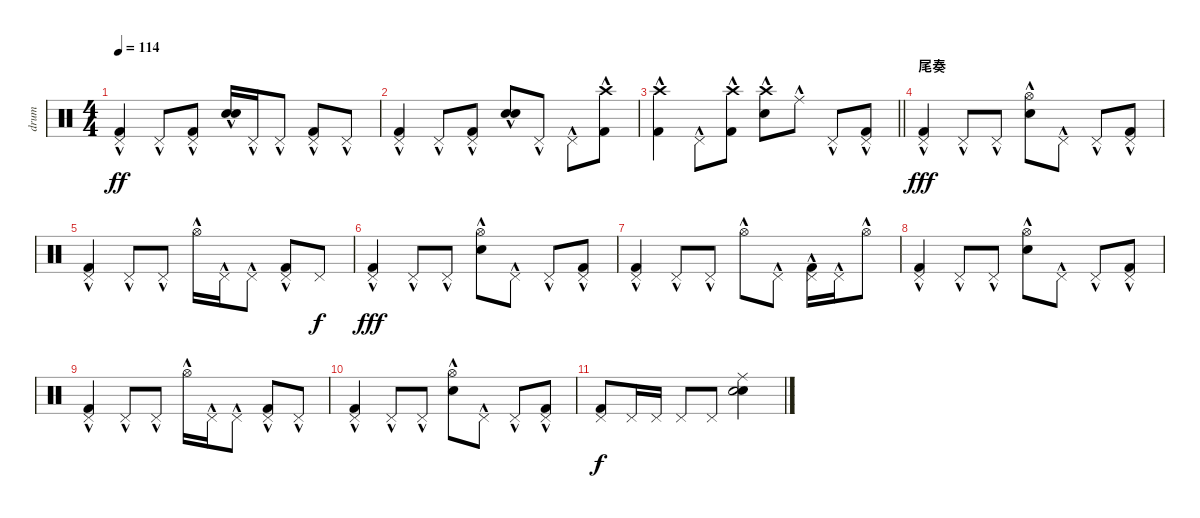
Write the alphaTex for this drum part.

\track ("drum" "drum") {instrument percussion}
\staff {score}
\articulation defaults
\ts (4 4)
\tempo 114
\clef neutral
\ks c
("Pedal Hi-Hat (hit)"{hac} "Kick (hit) 2"{hac}).4{dy ff} "Pedal Hi-Hat (hit)"{hac}.8 ("Pedal Hi-Hat (hit)"{hac} "Kick (hit) 2"{hac}).8 ("Snare (hit) 2"{hac} "Hand Clap (hit)"{hac}).16 "Pedal Hi-Hat (hit)"{hac}.16 "Pedal Hi-Hat (hit)"{hac}.8 ("Pedal Hi-Hat (hit)"{hac} "Kick (hit) 2").8 "Pedal Hi-Hat (hit)"{hac}.8 |
("Pedal Hi-Hat (hit)"{hac} "Kick (hit) 2"{hac}).4 "Pedal Hi-Hat (hit)"{hac}.8 ("Pedal Hi-Hat (hit)"{hac} "Kick (hit) 2"{hac}).8 ("Snare (hit) 2"{hac} "Hand Clap (hit)"{hac}).8 "Pedal Hi-Hat (hit)"{hac}.8 "Pedal Hi-Hat (hit)"{hac}.8 ("Crash high (hit)"{hac} "Kick (hit) 2"{hac}).8 |
\barLineRight lightlight
("Crash high (hit)"{hac} "Kick (hit) 2"{hac}).4 "Pedal Hi-Hat (hit)"{hac}.8 ("Crash high (hit)"{hac} "Kick (hit) 2"{hac}).8 ("Crash high (hit)"{hac} "Hand Clap (hit)"{hac}).8 "Ride (middle)"{hac}.8 "Pedal Hi-Hat (hit)"{hac}.8 ("Pedal Hi-Hat (hit)"{hac} "Kick (hit) 2"{hac}).8 |
\section ("" "尾奏")
("Pedal Hi-Hat (hit)"{hac} "Kick (hit) 2"{hac}).4{dy fff} "Pedal Hi-Hat (hit)"{hac}.8 "Pedal Hi-Hat (hit)"{hac}.8 ("Hi-Hat (open)"{hac} "Hand Clap (hit)"{hac}).8 "Pedal Hi-Hat (hit)"{hac}.8 "Pedal Hi-Hat (hit)"{hac}.8 ("Pedal Hi-Hat (hit)"{hac} "Kick (hit) 2"{hac}).8 |
("Pedal Hi-Hat (hit)"{hac} "Kick (hit) 2"{hac}).4 "Pedal Hi-Hat (hit)"{hac}.8 "Pedal Hi-Hat (hit)"{hac}.8 "Hi-Hat (open)"{hac}.16 "Pedal Hi-Hat (hit)"{hac}.16 "Pedal Hi-Hat (hit)"{hac}.8 ("Pedal Hi-Hat (hit)"{hac} "Kick (hit) 2").8 "Pedal Hi-Hat (hit)".8{dy f} |
("Pedal Hi-Hat (hit)"{hac} "Kick (hit) 2"{hac}).4{dy fff} "Pedal Hi-Hat (hit)"{hac}.8 "Pedal Hi-Hat (hit)"{hac}.8 ("Hi-Hat (open)"{hac} "Hand Clap (hit)"{hac}).8 "Pedal Hi-Hat (hit)"{hac}.8 "Pedal Hi-Hat (hit)"{hac}.8 ("Pedal Hi-Hat (hit)"{hac} "Kick (hit) 2"{hac}).8 |
("Pedal Hi-Hat (hit)"{hac} "Kick (hit) 2"{hac}).4 "Pedal Hi-Hat (hit)"{hac}.8 "Pedal Hi-Hat (hit)"{hac}.8 "Hi-Hat (open)"{hac}.8 "Pedal Hi-Hat (hit)"{hac}.8 ("Pedal Hi-Hat (hit)"{hac} "Kick (hit) 2"{hac}).16 "Pedal Hi-Hat (hit)"{hac}.16 "Hi-Hat (open)"{hac}.8 |
("Pedal Hi-Hat (hit)"{hac} "Kick (hit) 2"{hac}).4 "Pedal Hi-Hat (hit)"{hac}.8 "Pedal Hi-Hat (hit)"{hac}.8 ("Hi-Hat (open)"{hac} "Hand Clap (hit)"{hac}).8 "Pedal Hi-Hat (hit)"{hac}.8 "Pedal Hi-Hat (hit)"{hac}.8 ("Pedal Hi-Hat (hit)"{hac} "Kick (hit) 2"{hac}).8 |
("Pedal Hi-Hat (hit)"{hac} "Kick (hit) 2"{hac}).4 "Pedal Hi-Hat (hit)"{hac}.8 "Pedal Hi-Hat (hit)"{hac}.8 "Hi-Hat (open)"{hac}.16 "Pedal Hi-Hat (hit)"{hac}.16 "Pedal Hi-Hat (hit)"{hac}.8 ("Pedal Hi-Hat (hit)"{hac} "Kick (hit) 2").8 "Pedal Hi-Hat (hit)"{hac}.8 |
("Pedal Hi-Hat (hit)"{hac} "Kick (hit) 2"{hac}).4 "Pedal Hi-Hat (hit)"{hac}.8 "Pedal Hi-Hat (hit)"{hac}.8 ("Hi-Hat (open)"{hac} "Hand Clap (hit)"{hac}).8 "Pedal Hi-Hat (hit)"{hac}.8 "Pedal Hi-Hat (hit)"{hac}.8 ("Pedal Hi-Hat (hit)"{hac} "Kick (hit) 2"{hac}).8 |
("Pedal Hi-Hat (hit)" "Kick (hit) 2").8{dy f} "Pedal Hi-Hat (hit)".16 "Pedal Hi-Hat (hit)".16 "Pedal Hi-Hat (hit)".8 "Pedal Hi-Hat (hit)".8 ("Ride (middle)" "Metronome (bell)" "Hand Clap (hit)").2
